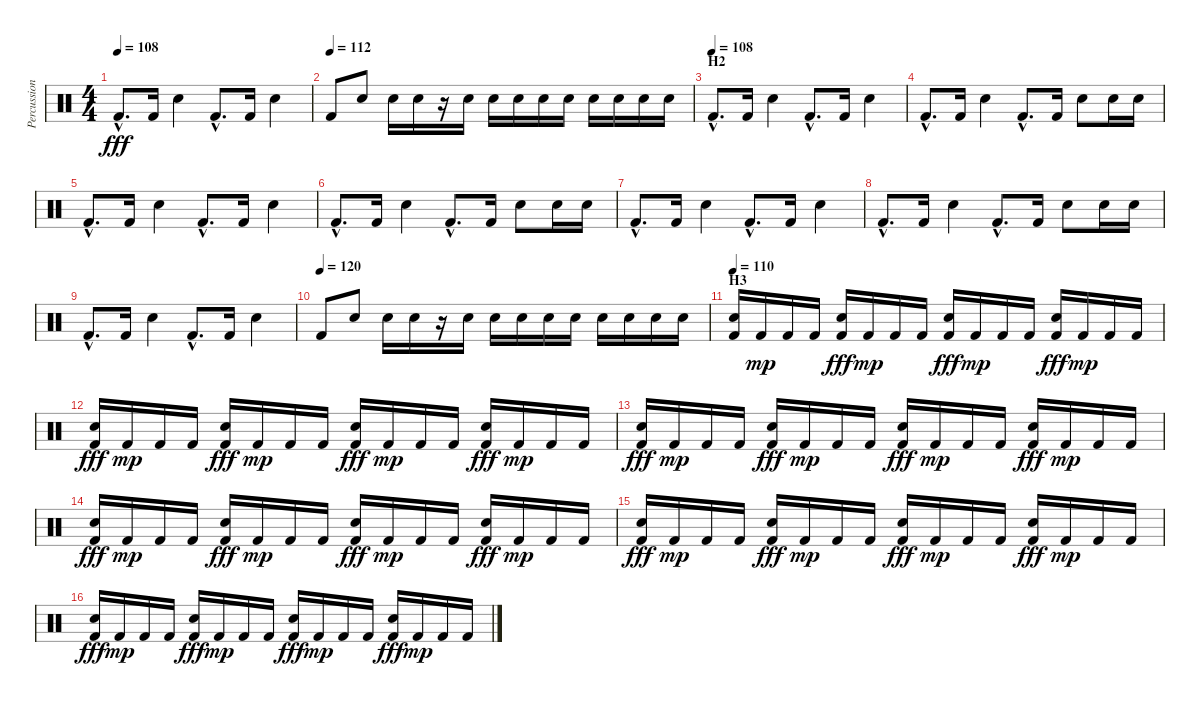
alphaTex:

\track ("Percussion" "Percussion") {instrument percussion}
\staff {score}
\articulation defaults
\ts (4 4)
\tempo 108
\clef neutral
\ks c "Kick (hit) 2"{hac}.8{d dy fff} "Kick (hit) 2".16 "Electric Snare (hit)".4 "Kick (hit) 2"{hac}.8{d} "Kick (hit) 2".16 "Electric Snare (hit)".4
|
\tempo (112)
"Kick (hit) 2".8 "Electric Snare (hit)".8 "Electric Snare (hit)".16 "Electric Snare (hit)".16 r.16 "Electric Snare (hit)".16 "Electric Snare (hit)".16 "Electric Snare (hit)".16 "Electric Snare (hit)".16 "Electric Snare (hit)".16 "Electric Snare (hit)".16 "Electric Snare (hit)".16 "Electric Snare (hit)".16 "Electric Snare (hit)".16 |
\section ("" "H2")
\tempo (108)
"Kick (hit) 2"{hac}.8{d} "Kick (hit) 2".16 "Electric Snare (hit)".4 "Kick (hit) 2"{hac}.8{d} "Kick (hit) 2".16 "Electric Snare (hit)".4 |
"Kick (hit) 2"{hac}.8{d} "Kick (hit) 2".16 "Electric Snare (hit)".4 "Kick (hit) 2"{hac}.8{d} "Kick (hit) 2".16 "Electric Snare (hit)".8 "Electric Snare (hit)".16 "Electric Snare (hit)".16 |
"Kick (hit) 2"{hac}.8{d} "Kick (hit) 2".16 "Electric Snare (hit)".4 "Kick (hit) 2"{hac}.8{d} "Kick (hit) 2".16 "Electric Snare (hit)".4 |
"Kick (hit) 2"{hac}.8{d} "Kick (hit) 2".16 "Electric Snare (hit)".4 "Kick (hit) 2"{hac}.8{d} "Kick (hit) 2".16 "Electric Snare (hit)".8 "Electric Snare (hit)".16 "Electric Snare (hit)".16 |
"Kick (hit) 2"{hac}.8{d} "Kick (hit) 2".16 "Electric Snare (hit)".4 "Kick (hit) 2"{hac}.8{d} "Kick (hit) 2".16 "Electric Snare (hit)".4 |
"Kick (hit) 2"{hac}.8{d} "Kick (hit) 2".16 "Electric Snare (hit)".4 "Kick (hit) 2"{hac}.8{d} "Kick (hit) 2".16 "Electric Snare (hit)".8 "Electric Snare (hit)".16 "Electric Snare (hit)".16 |
"Kick (hit) 2"{hac}.8{d} "Kick (hit) 2".16 "Electric Snare (hit)".4 "Kick (hit) 2"{hac}.8{d} "Kick (hit) 2".16 "Electric Snare (hit)".4 |
\tempo (120)
"Kick (hit) 2".8 "Electric Snare (hit)".8 "Electric Snare (hit)".16 "Electric Snare (hit)".16 r.16 "Electric Snare (hit)".16 "Electric Snare (hit)".16 "Electric Snare (hit)".16 "Electric Snare (hit)".16 "Electric Snare (hit)".16 "Electric Snare (hit)".16 "Electric Snare (hit)".16 "Electric Snare (hit)".16 "Electric Snare (hit)".16 |
\section ("" "H3")
\tempo 110
("Kick (hit) 2" "Electric Snare (hit)").16 "Kick (hit) 2".16{dy mp} "Kick (hit) 2".16 "Kick (hit) 2".16 ("Kick (hit) 2" "Electric Snare (hit)").16{dy fff} "Kick (hit) 2".16{dy mp} "Kick (hit) 2".16 "Kick (hit) 2".16 ("Kick (hit) 2" "Electric Snare (hit)").16{dy fff} "Kick (hit) 2".16{dy mp} "Kick (hit) 2".16 "Kick (hit) 2".16 ("Kick (hit) 2" "Electric Snare (hit)").16{dy fff} "Kick (hit) 2".16{dy mp} "Kick (hit) 2".16 "Kick (hit) 2".16 |
("Kick (hit) 2" "Electric Snare (hit)").16{dy fff} "Kick (hit) 2".16{dy mp} "Kick (hit) 2".16 "Kick (hit) 2".16 ("Kick (hit) 2" "Electric Snare (hit)").16{dy fff} "Kick (hit) 2".16{dy mp} "Kick (hit) 2".16 "Kick (hit) 2".16 ("Kick (hit) 2" "Electric Snare (hit)").16{dy fff} "Kick (hit) 2".16{dy mp} "Kick (hit) 2".16 "Kick (hit) 2".16 ("Kick (hit) 2" "Electric Snare (hit)").16{dy fff} "Kick (hit) 2".16{dy mp} "Kick (hit) 2".16 "Kick (hit) 2".16 |
("Kick (hit) 2" "Electric Snare (hit)").16{dy fff} "Kick (hit) 2".16{dy mp} "Kick (hit) 2".16 "Kick (hit) 2".16 ("Kick (hit) 2" "Electric Snare (hit)").16{dy fff} "Kick (hit) 2".16{dy mp} "Kick (hit) 2".16 "Kick (hit) 2".16 ("Kick (hit) 2" "Electric Snare (hit)").16{dy fff} "Kick (hit) 2".16{dy mp} "Kick (hit) 2".16 "Kick (hit) 2".16 ("Kick (hit) 2" "Electric Snare (hit)").16{dy fff} "Kick (hit) 2".16{dy mp} "Kick (hit) 2".16 "Kick (hit) 2".16 |
("Kick (hit) 2" "Electric Snare (hit)").16{dy fff} "Kick (hit) 2".16{dy mp} "Kick (hit) 2".16 "Kick (hit) 2".16 ("Kick (hit) 2" "Electric Snare (hit)").16{dy fff} "Kick (hit) 2".16{dy mp} "Kick (hit) 2".16 "Kick (hit) 2".16 ("Kick (hit) 2" "Electric Snare (hit)").16{dy fff} "Kick (hit) 2".16{dy mp} "Kick (hit) 2".16 "Kick (hit) 2".16 ("Kick (hit) 2" "Electric Snare (hit)").16{dy fff} "Kick (hit) 2".16{dy mp} "Kick (hit) 2".16 "Kick (hit) 2".16 |
("Kick (hit) 2" "Electric Snare (hit)").16{dy fff} "Kick (hit) 2".16{dy mp} "Kick (hit) 2".16 "Kick (hit) 2".16 ("Kick (hit) 2" "Electric Snare (hit)").16{dy fff} "Kick (hit) 2".16{dy mp} "Kick (hit) 2".16 "Kick (hit) 2".16 ("Kick (hit) 2" "Electric Snare (hit)").16{dy fff} "Kick (hit) 2".16{dy mp} "Kick (hit) 2".16 "Kick (hit) 2".16 ("Kick (hit) 2" "Electric Snare (hit)").16{dy fff} "Kick (hit) 2".16{dy mp} "Kick (hit) 2".16 "Kick (hit) 2".16 |
("Kick (hit) 2" "Electric Snare (hit)").16{dy fff} "Kick (hit) 2".16{dy mp} "Kick (hit) 2".16 "Kick (hit) 2".16 ("Kick (hit) 2" "Electric Snare (hit)").16{dy fff} "Kick (hit) 2".16{dy mp} "Kick (hit) 2".16 "Kick (hit) 2".16 ("Kick (hit) 2" "Electric Snare (hit)").16{dy fff} "Kick (hit) 2".16{dy mp} "Kick (hit) 2".16 "Kick (hit) 2".16 ("Kick (hit) 2" "Electric Snare (hit)").16{dy fff} "Kick (hit) 2".16{dy mp} "Kick (hit) 2".16 "Kick (hit) 2".16
